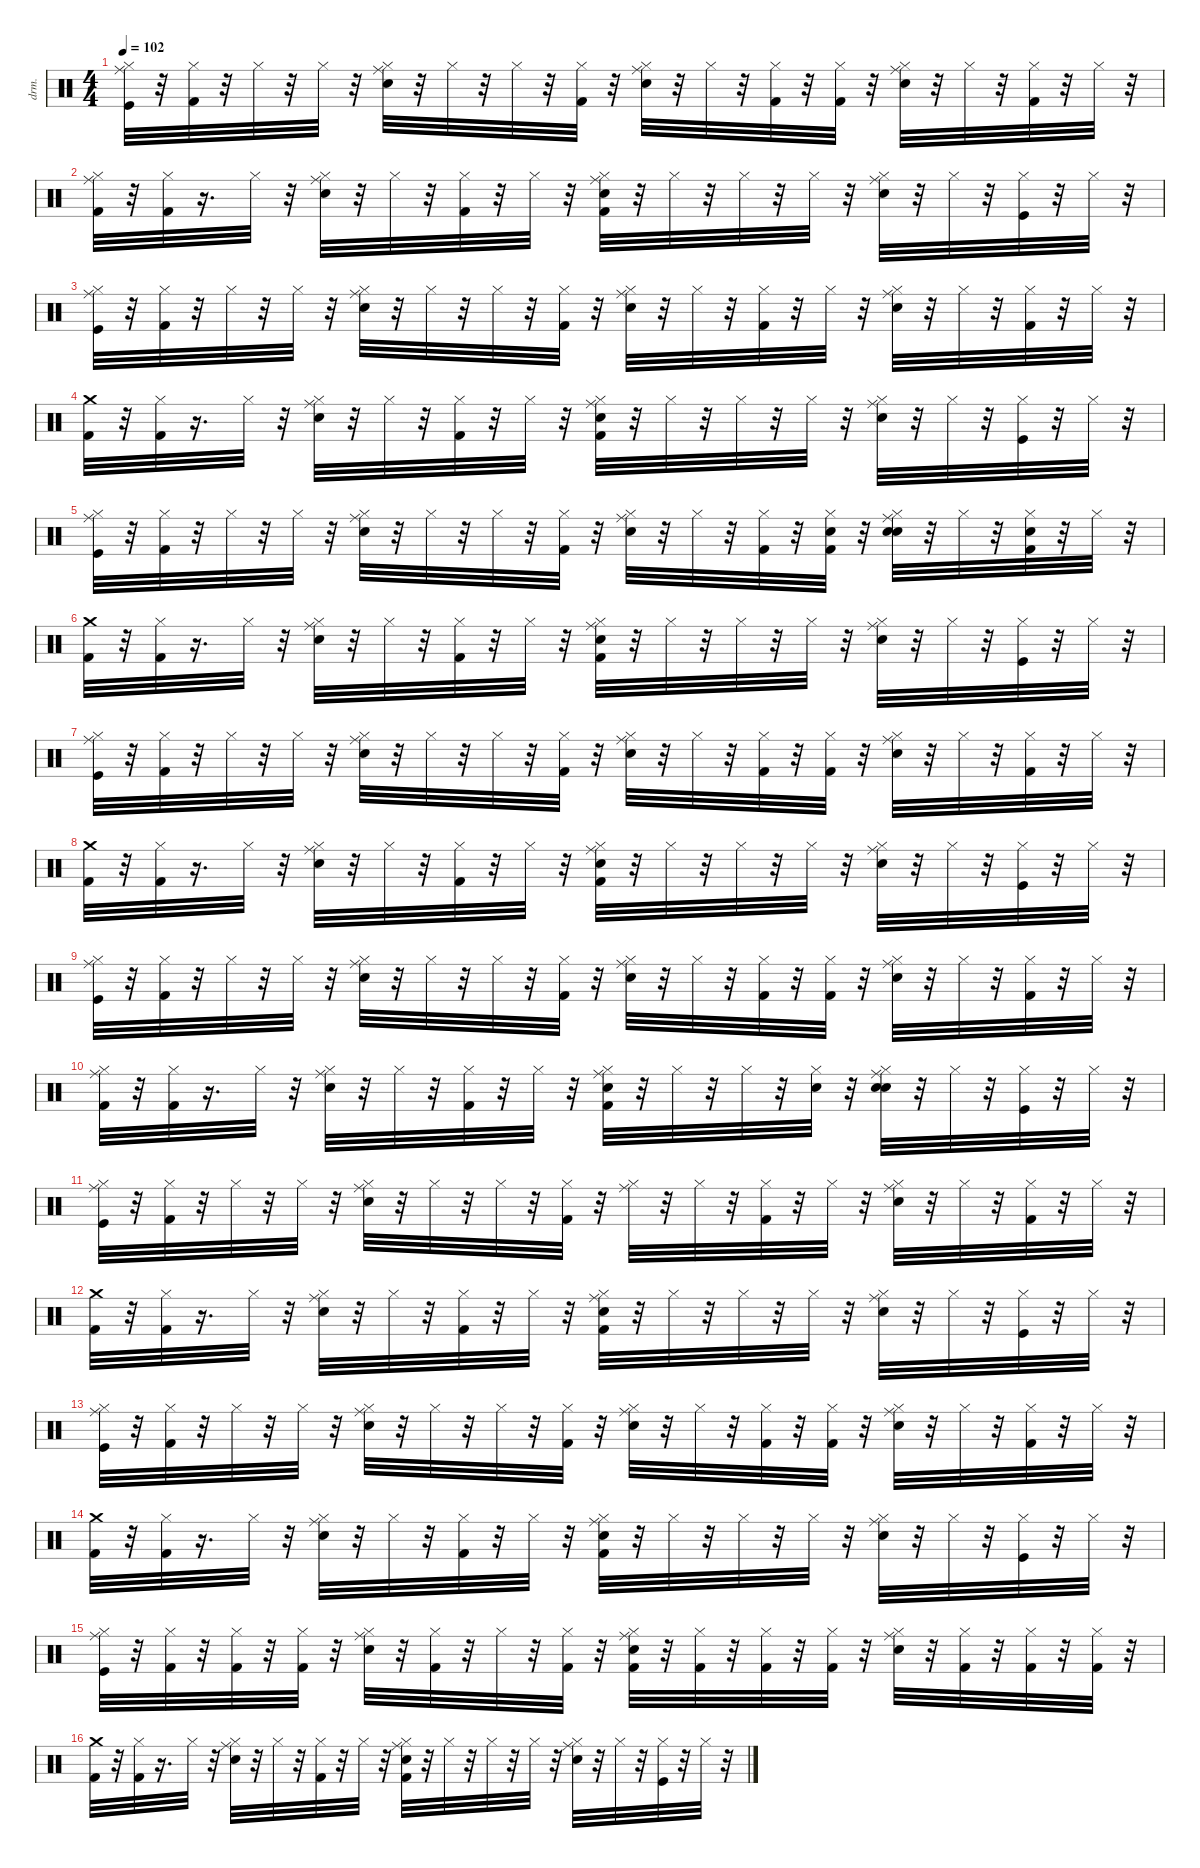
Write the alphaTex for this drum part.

\defaultSystemsLayout 4
\hideDynamics
\bracketExtendMode nobrackets
\otherSystemsTrackNameOrientation horizontal
\track ("Nick Mason / Gary Wallis" "drm.") {instrument percussion}
\staff {score}
\articulation defaults
\ts (4 4)
\tempo 102
\clef neutral
\ks c
("Kick (hit)" "Hi-Hat (closed)" "Ride (middle)").32{dy fff beam Down} r.32{beam Down} ("Hi-Hat (closed)" "Kick (hit) 2").32{dy pp beam Down} r.32{beam Down} "Hi-Hat (closed)".32{dy ppp beam Down} r.32{beam Down} "Hi-Hat (closed)".32{dy p beam Down} r.32{beam Down} ("Snare (hit) 2" "Hi-Hat (closed)" "Ride (middle)").32{beam Down} r.32{beam Down} "Hi-Hat (closed)".32{dy ppp beam Down} r.32{beam Down} "Hi-Hat (closed)".32{dy mp beam Down} r.32{beam Down} ("Hi-Hat (closed)" "Kick (hit) 2").32{dy ppp beam Down} r.32{beam Down} ("Snare (hit) 2" "Hi-Hat (closed)" "Ride (middle)").32{dy ff beam Down} r.32{beam Down} "Hi-Hat (closed)".32{dy pp beam Down} r.32{beam Down} ("Hi-Hat (closed)" "Kick (hit) 2").32{dy ppp beam Down} r.32{beam Down} ("Hi-Hat (closed)" "Kick (hit) 2").32{dy p beam Down} r.32{beam Down} ("Snare (hit) 2" "Hi-Hat (closed)" "Ride (middle)").32{beam Down} r.32{beam Down} "Hi-Hat (closed)".32{dy ppp beam Down} r.32{beam Down} ("Kick (hit) 2" "Hi-Hat (closed)").32{dy f beam Down} r.32{beam Down} "Hi-Hat (closed)".32{dy p beam Down} r.32{beam Down} |
("Kick (hit) 2" "Hi-Hat (closed)" "Ride (middle)").32{dy ff beam Down} r.32{beam Down} ("Hi-Hat (closed)" "Kick (hit) 2").32{dy mp beam Down} r.16{d beam Down} "Hi-Hat (closed)".32{dy pp beam Down} r.32{beam Down} ("Snare (hit) 2" "Hi-Hat (closed)" "Ride (middle)").32{dy p beam Down} r.32{beam Down} "Hi-Hat (closed)".32{dy pp beam Down} r.32{beam Down} ("Kick (hit) 2" "Hi-Hat (closed)").32{dy ff beam Down} r.32{beam Down} "Hi-Hat (closed)".32{dy ppp beam Down} r.32{beam Down} ("Kick (hit) 2" "Snare (hit) 2" "Hi-Hat (closed)" "Ride (middle)").32{dy f beam Down} r.32{beam Down} "Hi-Hat (closed)".32{dy ppp beam Down} r.32{beam Down} "Hi-Hat (closed)".32{dy pp beam Down} r.32{beam Down} "Hi-Hat (closed)".32{beam Down} r.32{beam Down} ("Snare (hit) 2" "Hi-Hat (closed)" "Ride (middle)").32{dy p beam Down} r.32{beam Down} "Hi-Hat (closed)".32{dy ppp beam Down} r.32{beam Down} ("Kick (hit)" "Hi-Hat (closed)").32{dy f beam Down} r.32{beam Down} "Hi-Hat (closed)".32{dy mp beam Down} r.32{beam Down} |
("Kick (hit)" "Hi-Hat (closed)" "Ride (middle)").32{dy fff beam Down} r.32{beam Down} ("Hi-Hat (closed)" "Kick (hit) 2").32{dy pp beam Down} r.32{beam Down} "Hi-Hat (closed)".32{dy ppp beam Down} r.32{beam Down} "Hi-Hat (closed)".32{dy p beam Down} r.32{beam Down} ("Snare (hit) 2" "Hi-Hat (closed)" "Ride (middle)").32{beam Down} r.32{beam Down} "Hi-Hat (closed)".32{dy ppp beam Down} r.32{beam Down} "Hi-Hat (closed)".32{dy mp beam Down} r.32{beam Down} ("Hi-Hat (closed)" "Kick (hit) 2").32{dy ppp beam Down} r.32{beam Down} ("Snare (hit) 2" "Hi-Hat (closed)" "Ride (middle)").32{dy ff beam Down} r.32{beam Down} "Hi-Hat (closed)".32{dy pp beam Down} r.32{beam Down} ("Hi-Hat (closed)" "Kick (hit) 2").32{dy ppp beam Down} r.32{beam Down} "Hi-Hat (closed)".32{dy p beam Down} r.32{beam Down} ("Snare (hit) 2" "Hi-Hat (closed)" "Ride (middle)").32{beam Down} r.32{beam Down} "Hi-Hat (closed)".32{dy ppp beam Down} r.32{beam Down} ("Kick (hit) 2" "Hi-Hat (closed)").32{dy f beam Down} r.32{beam Down} "Hi-Hat (closed)".32{dy p beam Down} r.32{beam Down} |
("Kick (hit) 2" "Crash medium (hit)").32{dy ff beam Down} r.32{beam Down} ("Hi-Hat (closed)" "Kick (hit) 2").32{dy mp beam Down} r.16{d beam Down} "Hi-Hat (closed)".32{dy pp beam Down} r.32{beam Down} ("Snare (hit) 2" "Hi-Hat (closed)" "Ride (middle)").32{dy p beam Down} r.32{beam Down} "Hi-Hat (closed)".32{dy pp beam Down} r.32{beam Down} ("Kick (hit) 2" "Hi-Hat (closed)").32{dy f beam Down} r.32{beam Down} "Hi-Hat (closed)".32{dy ppp beam Down} r.32{beam Down} ("Kick (hit) 2" "Snare (hit) 2" "Hi-Hat (closed)" "Ride (middle)").32{dy f beam Down} r.32{beam Down} "Hi-Hat (closed)".32{dy ppp beam Down} r.32{beam Down} "Hi-Hat (closed)".32{dy pp beam Down} r.32{beam Down} "Hi-Hat (closed)".32{beam Down} r.32{beam Down} ("Snare (hit) 2" "Hi-Hat (closed)" "Ride (middle)").32{dy p beam Down} r.32{beam Down} "Hi-Hat (closed)".32{dy ppp beam Down} r.32{beam Down} ("Kick (hit)" "Hi-Hat (closed)").32{dy f beam Down} r.32{beam Down} "Hi-Hat (closed)".32{dy mp beam Down} r.32{beam Down} |
("Kick (hit)" "Hi-Hat (closed)" "Ride (middle)").32{dy fff beam Down} r.32{beam Down} ("Hi-Hat (closed)" "Kick (hit) 2").32{dy pp beam Down} r.32{beam Down} "Hi-Hat (closed)".32{dy ppp beam Down} r.32{beam Down} "Hi-Hat (closed)".32{dy p beam Down} r.32{beam Down} ("Snare (hit) 2" "Hi-Hat (closed)" "Ride (middle)").32{beam Down} r.32{beam Down} "Hi-Hat (closed)".32{dy ppp beam Down} r.32{beam Down} "Hi-Hat (closed)".32{dy mp beam Down} r.32{beam Down} ("Hi-Hat (closed)" "Kick (hit) 2").32{dy ppp beam Down} r.32{beam Down} ("Snare (hit) 2" "Hi-Hat (closed)" "Ride (middle)").32{dy ff beam Down} r.32{beam Down} "Hi-Hat (closed)".32{dy pp beam Down} r.32{beam Down} ("Hi-Hat (closed)" "Kick (hit) 2").32{dy ppp beam Down} r.32{beam Down} ("Snare (hit) 2" "Hi-Hat (closed)" "Kick (hit) 2").32{dy mp beam Down} r.32{beam Down} ("Snare (hit) 2" "Snare (hit) 2" "Hi-Hat (closed)" "Ride (middle)").32{dy p beam Down} r.32{beam Down} "Hi-Hat (closed)".32{dy ppp beam Down} r.32{beam Down} ("Kick (hit) 2" "Snare (hit) 2" "Hi-Hat (closed)").32{dy f beam Down} r.32{beam Down} "Hi-Hat (closed)".32{dy p beam Down} r.32{beam Down} |
("Kick (hit) 2" "Crash medium (hit)").32{dy ff beam Down} r.32{beam Down} ("Hi-Hat (closed)" "Kick (hit) 2").32{dy mp beam Down} r.16{d beam Down} "Hi-Hat (closed)".32{dy pp beam Down} r.32{beam Down} ("Snare (hit) 2" "Hi-Hat (closed)" "Ride (middle)").32{dy p beam Down} r.32{beam Down} "Hi-Hat (closed)".32{dy pp beam Down} r.32{beam Down} ("Kick (hit) 2" "Hi-Hat (closed)").32{dy ff beam Down} r.32{beam Down} "Hi-Hat (closed)".32{dy ppp beam Down} r.32{beam Down} ("Kick (hit) 2" "Snare (hit) 2" "Hi-Hat (closed)" "Ride (middle)").32{dy f beam Down} r.32{beam Down} "Hi-Hat (closed)".32{dy ppp beam Down} r.32{beam Down} "Hi-Hat (closed)".32{dy pp beam Down} r.32{beam Down} "Hi-Hat (closed)".32{beam Down} r.32{beam Down} ("Snare (hit) 2" "Hi-Hat (closed)" "Ride (middle)").32{dy p beam Down} r.32{beam Down} "Hi-Hat (closed)".32{dy ppp beam Down} r.32{beam Down} ("Kick (hit)" "Hi-Hat (closed)").32{dy f beam Down} r.32{beam Down} "Hi-Hat (closed)".32{dy mp beam Down} r.32{beam Down} |
("Kick (hit)" "Hi-Hat (closed)" "Ride (middle)").32{dy fff beam Down} r.32{beam Down} ("Hi-Hat (closed)" "Kick (hit) 2").32{dy pp beam Down} r.32{beam Down} "Hi-Hat (closed)".32{dy ppp beam Down} r.32{beam Down} "Hi-Hat (closed)".32{dy p beam Down} r.32{beam Down} ("Snare (hit) 2" "Hi-Hat (closed)" "Ride (middle)").32{beam Down} r.32{beam Down} "Hi-Hat (closed)".32{dy ppp beam Down} r.32{beam Down} "Hi-Hat (closed)".32{dy mp beam Down} r.32{beam Down} ("Hi-Hat (closed)" "Kick (hit) 2").32{dy ppp beam Down} r.32{beam Down} ("Snare (hit) 2" "Hi-Hat (closed)" "Ride (middle)").32{dy ff beam Down} r.32{beam Down} "Hi-Hat (closed)".32{dy pp beam Down} r.32{beam Down} ("Hi-Hat (closed)" "Kick (hit) 2").32{dy ppp beam Down} r.32{beam Down} ("Hi-Hat (closed)" "Kick (hit) 2").32{dy p beam Down} r.32{beam Down} ("Snare (hit) 2" "Hi-Hat (closed)" "Ride (middle)").32{beam Down} r.32{beam Down} "Hi-Hat (closed)".32{dy ppp beam Down} r.32{beam Down} ("Kick (hit) 2" "Hi-Hat (closed)").32{dy f beam Down} r.32{beam Down} "Hi-Hat (closed)".32{dy p beam Down} r.32{beam Down} |
("Kick (hit) 2" "Crash medium (hit)").32{dy ff beam Down} r.32{beam Down} ("Hi-Hat (closed)" "Kick (hit) 2").32{dy mp beam Down} r.16{d beam Down} "Hi-Hat (closed)".32{dy pp beam Down} r.32{beam Down} ("Snare (hit) 2" "Hi-Hat (closed)" "Ride (middle)").32{dy p beam Down} r.32{beam Down} "Hi-Hat (closed)".32{dy pp beam Down} r.32{beam Down} ("Kick (hit) 2" "Hi-Hat (closed)").32{dy f beam Down} r.32{beam Down} "Hi-Hat (closed)".32{dy ppp beam Down} r.32{beam Down} ("Kick (hit) 2" "Snare (hit) 2" "Hi-Hat (closed)" "Ride (middle)").32{dy f beam Down} r.32{beam Down} "Hi-Hat (closed)".32{dy ppp beam Down} r.32{beam Down} "Hi-Hat (closed)".32{dy pp beam Down} r.32{beam Down} "Hi-Hat (closed)".32{beam Down} r.32{beam Down} ("Snare (hit) 2" "Hi-Hat (closed)" "Ride (middle)").32{dy p beam Down} r.32{beam Down} "Hi-Hat (closed)".32{dy ppp beam Down} r.32{beam Down} ("Kick (hit)" "Hi-Hat (closed)").32{dy f beam Down} r.32{beam Down} "Hi-Hat (closed)".32{dy mp beam Down} r.32{beam Down} |
("Kick (hit)" "Hi-Hat (closed)" "Ride (middle)").32{dy fff beam Down} r.32{beam Down} ("Hi-Hat (closed)" "Kick (hit) 2").32{dy pp beam Down} r.32{beam Down} "Hi-Hat (closed)".32{dy ppp beam Down} r.32{beam Down} "Hi-Hat (closed)".32{dy p beam Down} r.32{beam Down} ("Snare (hit) 2" "Hi-Hat (closed)" "Ride (middle)").32{beam Down} r.32{beam Down} "Hi-Hat (closed)".32{dy ppp beam Down} r.32{beam Down} "Hi-Hat (closed)".32{dy mp beam Down} r.32{beam Down} ("Hi-Hat (closed)" "Kick (hit) 2").32{dy ppp beam Down} r.32{beam Down} ("Snare (hit) 2" "Hi-Hat (closed)" "Ride (middle)").32{dy ff beam Down} r.32{beam Down} "Hi-Hat (closed)".32{dy pp beam Down} r.32{beam Down} ("Hi-Hat (closed)" "Kick (hit) 2").32{dy ppp beam Down} r.32{beam Down} ("Hi-Hat (closed)" "Kick (hit) 2").32{dy p beam Down} r.32{beam Down} ("Snare (hit) 2" "Hi-Hat (closed)" "Ride (middle)").32{beam Down} r.32{beam Down} "Hi-Hat (closed)".32{dy ppp beam Down} r.32{beam Down} ("Kick (hit) 2" "Hi-Hat (closed)").32{dy f beam Down} r.32{beam Down} "Hi-Hat (closed)".32{dy p beam Down} r.32{beam Down} |
("Kick (hit) 2" "Hi-Hat (closed)" "Ride (middle)").32{dy ff beam Down} r.32{beam Down} ("Hi-Hat (closed)" "Kick (hit) 2").32{dy mp beam Down} r.16{d beam Down} "Hi-Hat (closed)".32{dy pp beam Down} r.32{beam Down} ("Snare (hit) 2" "Hi-Hat (closed)" "Ride (middle)").32{dy p beam Down} r.32{beam Down} "Hi-Hat (closed)".32{dy pp beam Down} r.32{beam Down} ("Kick (hit) 2" "Hi-Hat (closed)").32{dy ff beam Down} r.32{beam Down} "Hi-Hat (closed)".32{dy ppp beam Down} r.32{beam Down} ("Kick (hit) 2" "Snare (hit) 2" "Hi-Hat (closed)" "Ride (middle)").32{dy f beam Down} r.32{beam Down} "Hi-Hat (closed)".32{dy ppp beam Down} r.32{beam Down} "Hi-Hat (closed)".32{dy pp beam Down} r.32{beam Down} ("Snare (hit) 2" "Hi-Hat (closed)").32{dy mp beam Down} r.32{beam Down} ("Snare (hit) 2" "Snare (hit) 2" "Hi-Hat (closed)" "Ride (middle)").32{dy p beam Down} r.32{beam Down} "Hi-Hat (closed)".32{dy ppp beam Down} r.32{beam Down} ("Kick (hit)" "Hi-Hat (closed)").32{dy f beam Down} r.32{beam Down} "Hi-Hat (closed)".32{dy mp beam Down} r.32{beam Down} |
("Kick (hit)" "Hi-Hat (closed)" "Ride (middle)").32{dy fff beam Down} r.32{beam Down} ("Hi-Hat (closed)" "Kick (hit) 2").32{dy pp beam Down} r.32{beam Down} "Hi-Hat (closed)".32{dy ppp beam Down} r.32{beam Down} "Hi-Hat (closed)".32{dy p beam Down} r.32{beam Down} ("Snare (hit) 2" "Hi-Hat (closed)" "Ride (middle)").32{beam Down} r.32{beam Down} "Hi-Hat (closed)".32{dy ppp beam Down} r.32{beam Down} "Hi-Hat (closed)".32{dy mp beam Down} r.32{beam Down} ("Hi-Hat (closed)" "Kick (hit) 2").32{dy ppp beam Down} r.32{beam Down} ("Hi-Hat (closed)" "Ride (middle)").32{dy mf beam Down} r.32{beam Down} "Hi-Hat (closed)".32{dy pp beam Down} r.32{beam Down} ("Hi-Hat (closed)" "Kick (hit) 2").32{dy ppp beam Down} r.32{beam Down} "Hi-Hat (closed)".32{dy p beam Down} r.32{beam Down} ("Snare (hit) 2" "Hi-Hat (closed)" "Ride (middle)").32{beam Down} r.32{beam Down} "Hi-Hat (closed)".32{dy ppp beam Down} r.32{beam Down} ("Kick (hit) 2" "Hi-Hat (closed)").32{dy f beam Down} r.32{beam Down} "Hi-Hat (closed)".32{dy p beam Down} r.32{beam Down} |
("Kick (hit) 2" "Crash medium (hit)").32{dy ff beam Down} r.32{beam Down} ("Hi-Hat (closed)" "Kick (hit) 2").32{dy mp beam Down} r.16{d beam Down} "Hi-Hat (closed)".32{dy pp beam Down} r.32{beam Down} ("Snare (hit) 2" "Hi-Hat (closed)" "Ride (middle)").32{dy p beam Down} r.32{beam Down} "Hi-Hat (closed)".32{dy pp beam Down} r.32{beam Down} ("Kick (hit) 2" "Hi-Hat (closed)").32{dy f beam Down} r.32{beam Down} "Hi-Hat (closed)".32{dy ppp beam Down} r.32{beam Down} ("Kick (hit) 2" "Snare (hit) 2" "Hi-Hat (closed)" "Ride (middle)").32{dy f beam Down} r.32{beam Down} "Hi-Hat (closed)".32{dy ppp beam Down} r.32{beam Down} "Hi-Hat (closed)".32{dy pp beam Down} r.32{beam Down} "Hi-Hat (closed)".32{beam Down} r.32{beam Down} ("Snare (hit) 2" "Hi-Hat (closed)" "Ride (middle)").32{dy p beam Down} r.32{beam Down} "Hi-Hat (closed)".32{dy ppp beam Down} r.32{beam Down} ("Kick (hit)" "Hi-Hat (closed)").32{dy f beam Down} r.32{beam Down} "Hi-Hat (closed)".32{dy mp beam Down} r.32{beam Down} |
("Kick (hit)" "Hi-Hat (closed)" "Ride (middle)").32{dy fff beam Down} r.32{beam Down} ("Hi-Hat (closed)" "Kick (hit) 2").32{dy pp beam Down} r.32{beam Down} "Hi-Hat (closed)".32{dy ppp beam Down} r.32{beam Down} "Hi-Hat (closed)".32{dy p beam Down} r.32{beam Down} ("Snare (hit) 2" "Hi-Hat (closed)" "Ride (middle)").32{beam Down} r.32{beam Down} "Hi-Hat (closed)".32{dy ppp beam Down} r.32{beam Down} "Hi-Hat (closed)".32{dy mp beam Down} r.32{beam Down} ("Hi-Hat (closed)" "Kick (hit) 2").32{dy ppp beam Down} r.32{beam Down} ("Snare (hit) 2" "Hi-Hat (closed)" "Ride (middle)").32{dy ff beam Down} r.32{beam Down} "Hi-Hat (closed)".32{dy pp beam Down} r.32{beam Down} ("Hi-Hat (closed)" "Kick (hit) 2").32{dy ppp beam Down} r.32{beam Down} ("Hi-Hat (closed)" "Kick (hit) 2").32{dy p beam Down} r.32{beam Down} ("Snare (hit) 2" "Hi-Hat (closed)" "Ride (middle)").32{beam Down} r.32{beam Down} "Hi-Hat (closed)".32{dy ppp beam Down} r.32{beam Down} ("Kick (hit) 2" "Hi-Hat (closed)").32{dy f beam Down} r.32{beam Down} "Hi-Hat (closed)".32{dy p beam Down} r.32{beam Down} |
("Kick (hit) 2" "Crash medium (hit)").32{dy ff beam Down} r.32{beam Down} ("Hi-Hat (closed)" "Kick (hit) 2").32{dy mp beam Down} r.16{d beam Down} "Hi-Hat (closed)".32{dy pp beam Down} r.32{beam Down} ("Snare (hit) 2" "Hi-Hat (closed)" "Ride (middle)").32{dy p beam Down} r.32{beam Down} "Hi-Hat (closed)".32{dy pp beam Down} r.32{beam Down} ("Kick (hit) 2" "Hi-Hat (closed)").32{dy ff beam Down} r.32{beam Down} "Hi-Hat (closed)".32{dy ppp beam Down} r.32{beam Down} ("Kick (hit) 2" "Snare (hit) 2" "Hi-Hat (closed)" "Ride (middle)").32{dy f beam Down} r.32{beam Down} "Hi-Hat (closed)".32{dy ppp beam Down} r.32{beam Down} "Hi-Hat (closed)".32{dy pp beam Down} r.32{beam Down} "Hi-Hat (closed)".32{beam Down} r.32{beam Down} ("Snare (hit) 2" "Hi-Hat (closed)" "Ride (middle)").32{dy p beam Down} r.32{beam Down} "Hi-Hat (closed)".32{dy ppp beam Down} r.32{beam Down} ("Kick (hit)" "Hi-Hat (closed)").32{dy f beam Down} r.32{beam Down} "Hi-Hat (closed)".32{dy mp beam Down} r.32{beam Down} |
("Kick (hit)" "Hi-Hat (closed)" "Ride (middle)").32{dy fff beam Down} r.32{beam Down} ("Hi-Hat (closed)" "Kick (hit) 2").32{dy pp beam Down} r.32{beam Down} ("Kick (hit) 2" "Hi-Hat (closed)").32{dy mp beam Down} r.32{beam Down} ("Kick (hit) 2" "Hi-Hat (closed)").32{beam Down} r.32{beam Down} ("Snare (hit) 2" "Hi-Hat (closed)" "Ride (middle)").32{dy p beam Down} r.32{beam Down} ("Kick (hit) 2" "Hi-Hat (closed)").32{dy f beam Down} r.32{beam Down} "Hi-Hat (closed)".32{dy mp beam Down} r.32{beam Down} ("Hi-Hat (closed)" "Kick (hit) 2").32{dy ppp beam Down} r.32{beam Down} ("Kick (hit) 2" "Snare (hit) 2" "Hi-Hat (closed)" "Ride (middle)").32{dy ff beam Down} r.32{beam Down} ("Hi-Hat (closed)" "Kick (hit) 2").32{dy pp beam Down} r.32{beam Down} ("Hi-Hat (closed)" "Kick (hit) 2").32{dy ppp beam Down} r.32{beam Down} ("Hi-Hat (closed)" "Kick (hit) 2").32{dy p beam Down} r.32{beam Down} ("Snare (hit) 2" "Hi-Hat (closed)" "Ride (middle)").32{beam Down} r.32{beam Down} ("Kick (hit) 2" "Hi-Hat (closed)").32{dy f beam Down} r.32{beam Down} ("Kick (hit) 2" "Hi-Hat (closed)").32{beam Down} r.32{beam Down} ("Kick (hit) 2" "Hi-Hat (closed)").32{beam Down} r.32{beam Down} |
("Kick (hit) 2" "Crash medium (hit)").32{dy ff beam Down} r.32{beam Down} ("Hi-Hat (closed)" "Kick (hit) 2").32{dy mp beam Down} r.16{d beam Down} "Hi-Hat (closed)".32{dy pp beam Down} r.32{beam Down} ("Snare (hit) 2" "Hi-Hat (closed)" "Ride (middle)").32{dy p beam Down} r.32{beam Down} "Hi-Hat (closed)".32{dy pp beam Down} r.32{beam Down} ("Kick (hit) 2" "Hi-Hat (closed)").32{dy f beam Down} r.32{beam Down} "Hi-Hat (closed)".32{dy ppp beam Down} r.32{beam Down} ("Kick (hit) 2" "Snare (hit) 2" "Hi-Hat (closed)" "Ride (middle)").32{dy f beam Down} r.32{beam Down} "Hi-Hat (closed)".32{dy ppp beam Down} r.32{beam Down} "Hi-Hat (closed)".32{dy pp beam Down} r.32{beam Down} "Hi-Hat (closed)".32{beam Down} r.32{beam Down} ("Snare (hit) 2" "Hi-Hat (closed)" "Ride (middle)").32{dy p beam Down} r.32{beam Down} "Hi-Hat (closed)".32{dy ppp beam Down} r.32{beam Down} ("Kick (hit)" "Hi-Hat (closed)").32{dy f beam Down} r.32{beam Down} "Hi-Hat (closed)".32{dy mp beam Down} r.32{beam Down}
